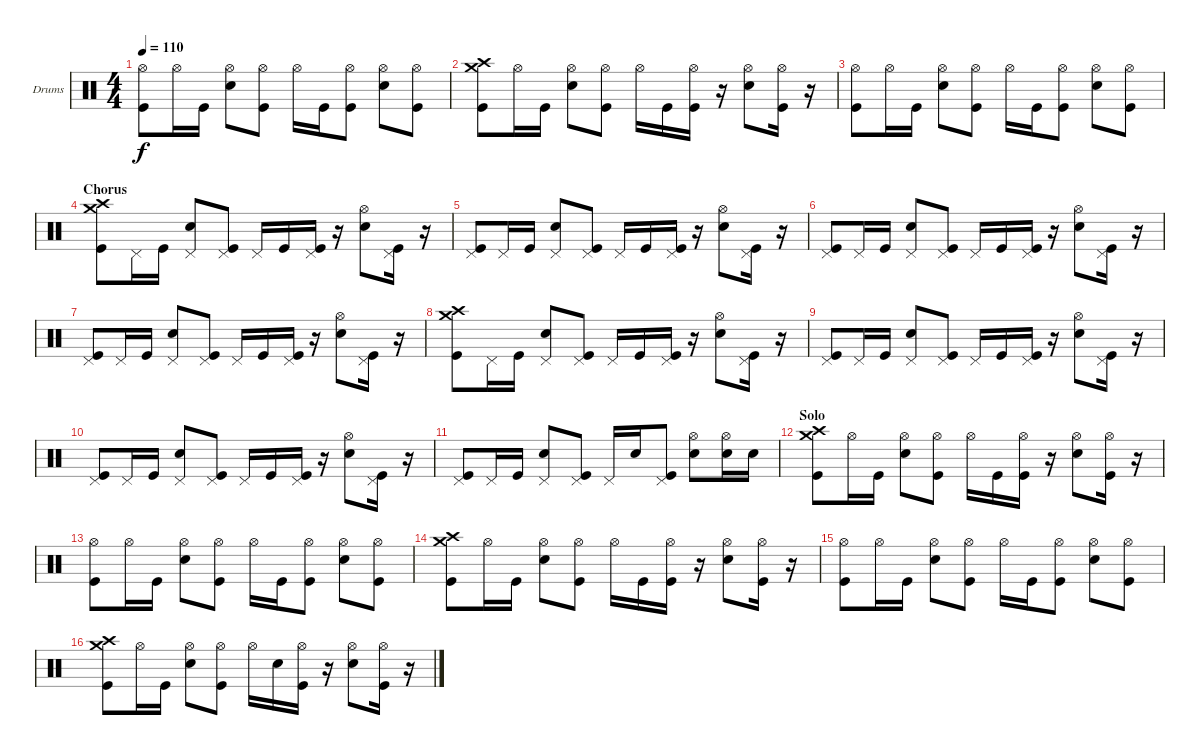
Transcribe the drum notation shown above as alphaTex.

\defaultSystemsLayout 4
\bracketExtendMode nobrackets
\firstSystemTrackNameOrientation horizontal
\otherSystemsTrackNameOrientation horizontal
\track ("Dave Abbruzzese" "Drums") {solo instrument percussion}
\staff {score}
\articulation defaults
\ts (4 4)
\tempo 110
\clef neutral
\ks c
("Kick (hit)" "Hi-Hat (open)").8{dy f} "Hi-Hat (open)".16 "Kick (hit)".16 ("Snare (hit) 2" "Hi-Hat (open)").8 ("Kick (hit)" "Hi-Hat (open)").8 "Hi-Hat (open)".16 "Kick (hit)".16 ("Kick (hit)" "Hi-Hat (open)").8 ("Snare (hit) 2" "Hi-Hat (open)").8 ("Kick (hit)" "Hi-Hat (open)").8 |
("Crash high (hit)" "Kick (hit)" "Crash medium (hit)").8 "Hi-Hat (open)".16 "Kick (hit)".16 ("Snare (hit) 2" "Hi-Hat (open)").8 ("Kick (hit)" "Hi-Hat (open)").8 "Hi-Hat (open)".16 "Kick (hit)".16 ("Kick (hit)" "Hi-Hat (open)").16 r.16 ("Snare (hit) 2" "Hi-Hat (open)").8 ("Kick (hit)" "Hi-Hat (open)").16 r.16 |
("Kick (hit)" "Hi-Hat (open)").8 "Hi-Hat (open)".16 "Kick (hit)".16 ("Snare (hit) 2" "Hi-Hat (open)").8 ("Kick (hit)" "Hi-Hat (open)").8 "Hi-Hat (open)".16 "Kick (hit)".16 ("Kick (hit)" "Hi-Hat (open)").8 ("Snare (hit) 2" "Hi-Hat (open)").8 ("Kick (hit)" "Hi-Hat (open)").8 |
\section ("" "Chorus")
("Crash high (hit)" "Kick (hit)" "Crash medium (hit)").8 "Pedal Hi-Hat (hit)".16 "Kick (hit)".16 ("Snare (hit) 2" "Pedal Hi-Hat (hit)").8 ("Kick (hit)" "Pedal Hi-Hat (hit)").8 "Pedal Hi-Hat (hit)".16 "Kick (hit)".16 ("Kick (hit)" "Pedal Hi-Hat (hit)").16 r.16 ("Snare (hit) 2" "Hi-Hat (open)").8 ("Kick (hit)" "Pedal Hi-Hat (hit)").16 r.16 |
("Kick (hit)" "Pedal Hi-Hat (hit)").8 "Pedal Hi-Hat (hit)".16 "Kick (hit)".16 ("Snare (hit) 2" "Pedal Hi-Hat (hit)").8 ("Kick (hit)" "Pedal Hi-Hat (hit)").8 "Pedal Hi-Hat (hit)".16 "Kick (hit)".16 ("Kick (hit)" "Pedal Hi-Hat (hit)").16 r.16 ("Snare (hit) 2" "Hi-Hat (open)").8 ("Kick (hit)" "Pedal Hi-Hat (hit)").16 r.16 |
("Kick (hit)" "Pedal Hi-Hat (hit)").8 "Pedal Hi-Hat (hit)".16 "Kick (hit)".16 ("Snare (hit) 2" "Pedal Hi-Hat (hit)").8 ("Kick (hit)" "Pedal Hi-Hat (hit)").8 "Pedal Hi-Hat (hit)".16 "Kick (hit)".16 ("Kick (hit)" "Pedal Hi-Hat (hit)").16 r.16 ("Snare (hit) 2" "Hi-Hat (open)").8 ("Kick (hit)" "Pedal Hi-Hat (hit)").16 r.16 |
("Kick (hit)" "Pedal Hi-Hat (hit)").8 "Pedal Hi-Hat (hit)".16 "Kick (hit)".16 ("Snare (hit) 2" "Pedal Hi-Hat (hit)").8 ("Kick (hit)" "Pedal Hi-Hat (hit)").8 "Pedal Hi-Hat (hit)".16 "Kick (hit)".16 ("Kick (hit)" "Pedal Hi-Hat (hit)").16 r.16 ("Snare (hit) 2" "Hi-Hat (open)").8 ("Kick (hit)" "Pedal Hi-Hat (hit)").16 r.16 |
("Crash high (hit)" "Kick (hit)" "Crash medium (hit)").8 "Pedal Hi-Hat (hit)".16 "Kick (hit)".16 ("Snare (hit) 2" "Pedal Hi-Hat (hit)").8 ("Kick (hit)" "Pedal Hi-Hat (hit)").8 "Pedal Hi-Hat (hit)".16 "Kick (hit)".16 ("Kick (hit)" "Pedal Hi-Hat (hit)").16 r.16 ("Snare (hit) 2" "Hi-Hat (open)").8 ("Kick (hit)" "Pedal Hi-Hat (hit)").16 r.16 |
("Kick (hit)" "Pedal Hi-Hat (hit)").8 "Pedal Hi-Hat (hit)".16 "Kick (hit)".16 ("Snare (hit) 2" "Pedal Hi-Hat (hit)").8 ("Kick (hit)" "Pedal Hi-Hat (hit)").8 "Pedal Hi-Hat (hit)".16 "Kick (hit)".16 ("Kick (hit)" "Pedal Hi-Hat (hit)").16 r.16 ("Snare (hit) 2" "Hi-Hat (open)").8 ("Kick (hit)" "Pedal Hi-Hat (hit)").16 r.16 |
("Kick (hit)" "Pedal Hi-Hat (hit)").8 "Pedal Hi-Hat (hit)".16 "Kick (hit)".16 ("Snare (hit) 2" "Pedal Hi-Hat (hit)").8 ("Kick (hit)" "Pedal Hi-Hat (hit)").8 "Pedal Hi-Hat (hit)".16 "Kick (hit)".16 ("Kick (hit)" "Pedal Hi-Hat (hit)").16 r.16 ("Snare (hit) 2" "Hi-Hat (open)").8 ("Kick (hit)" "Pedal Hi-Hat (hit)").16 r.16 |
("Kick (hit)" "Pedal Hi-Hat (hit)").8 "Pedal Hi-Hat (hit)".16 "Kick (hit)".16 ("Snare (hit) 2" "Pedal Hi-Hat (hit)").8 ("Kick (hit)" "Pedal Hi-Hat (hit)").8 "Pedal Hi-Hat (hit)".16 "Snare (hit) 2".16 ("Kick (hit)" "Pedal Hi-Hat (hit)").8 ("Snare (hit) 2" "Hi-Hat (open)").8 ("Snare (hit) 2" "Hi-Hat (open)").16 "Snare (hit) 2".16 |
\section ("" "Solo")
("Crash high (hit)" "Kick (hit)" "Crash medium (hit)").8 "Hi-Hat (open)".16 "Kick (hit)".16 ("Snare (hit) 2" "Hi-Hat (open)").8 ("Kick (hit)" "Hi-Hat (open)").8 "Hi-Hat (open)".16 "Kick (hit)".16 ("Kick (hit)" "Hi-Hat (open)").16 r.16 ("Snare (hit) 2" "Hi-Hat (open)").8 ("Kick (hit)" "Hi-Hat (open)").16 r.16 |
("Kick (hit)" "Hi-Hat (open)").8 "Hi-Hat (open)".16 "Kick (hit)".16 ("Snare (hit) 2" "Hi-Hat (open)").8 ("Kick (hit)" "Hi-Hat (open)").8 "Hi-Hat (open)".16 "Kick (hit)".16 ("Kick (hit)" "Hi-Hat (open)").8 ("Snare (hit) 2" "Hi-Hat (open)").8 ("Kick (hit)" "Hi-Hat (open)").8 |
("Crash high (hit)" "Kick (hit)" "Crash medium (hit)").8 "Hi-Hat (open)".16 "Kick (hit)".16 ("Snare (hit) 2" "Hi-Hat (open)").8 ("Kick (hit)" "Hi-Hat (open)").8 "Hi-Hat (open)".16 "Kick (hit)".16 ("Kick (hit)" "Hi-Hat (open)").16 r.16 ("Snare (hit) 2" "Hi-Hat (open)").8 ("Kick (hit)" "Hi-Hat (open)").16 r.16 |
("Kick (hit)" "Hi-Hat (open)").8 "Hi-Hat (open)".16 "Kick (hit)".16 ("Snare (hit) 2" "Hi-Hat (open)").8 ("Kick (hit)" "Hi-Hat (open)").8 "Hi-Hat (open)".16 "Kick (hit)".16 ("Kick (hit)" "Hi-Hat (open)").8 ("Snare (hit) 2" "Hi-Hat (open)").8 ("Kick (hit)" "Hi-Hat (open)").8 |
("Crash high (hit)" "Kick (hit)" "Crash medium (hit)").8 "Hi-Hat (open)".16 "Kick (hit)".16 ("Snare (hit) 2" "Hi-Hat (open)").8 ("Kick (hit)" "Hi-Hat (open)").8 "Hi-Hat (open)".16 "Snare (hit) 2".16 ("Kick (hit)" "Hi-Hat (open)").16 r.16 ("Snare (hit) 2" "Hi-Hat (open)").8 ("Kick (hit)" "Hi-Hat (open)").16 r.16
